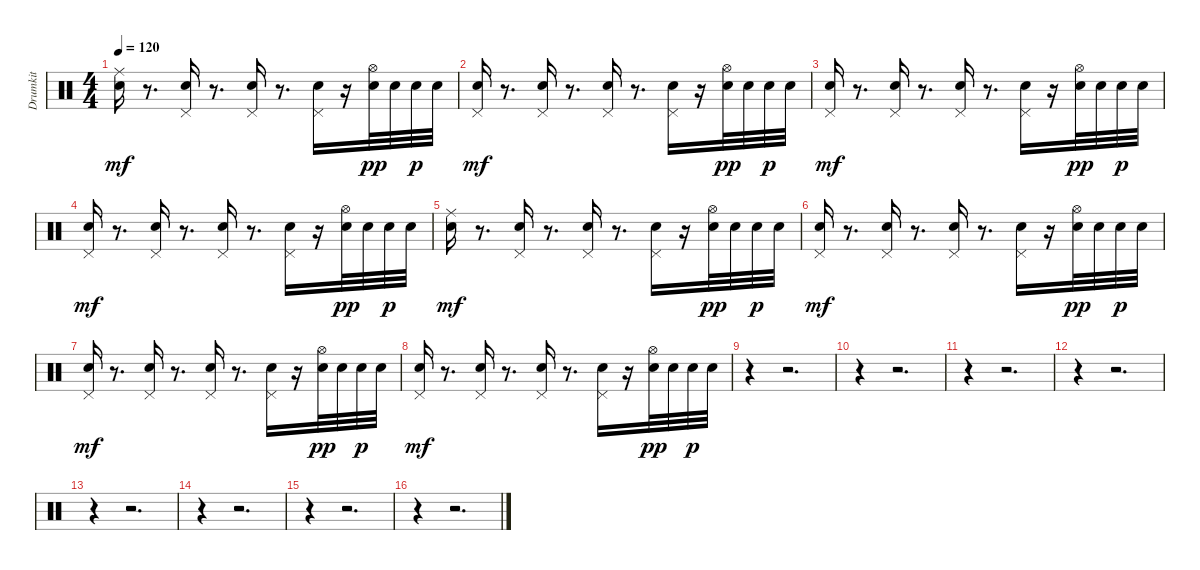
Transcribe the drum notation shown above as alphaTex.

\track ("Drumkit" "Drumkit") {instrument percussion}
\staff {score}
\articulation defaults
\ts (4 4)
\tempo 120
\clef neutral
\ks c
("Snare (hit) 2" "Ride (middle)").16{dy mf} r.8{d} ("Snare (hit) 2" "Pedal Hi-Hat (hit)").16 r.8{d} ("Snare (hit) 2" "Pedal Hi-Hat (hit)").16 r.8{d} ("Snare (hit) 2" "Pedal Hi-Hat (hit)").16 r.16 ("Snare (hit) 2" "Hi-Hat (open)").32{dy pp} "Snare (hit) 2".32 "Snare (hit) 2".32{dy p} "Snare (hit) 2".32 |
("Snare (hit) 2" "Pedal Hi-Hat (hit)").16{dy mf} r.8{d} ("Snare (hit) 2" "Pedal Hi-Hat (hit)").16 r.8{d} ("Snare (hit) 2" "Pedal Hi-Hat (hit)").16 r.8{d} ("Snare (hit) 2" "Pedal Hi-Hat (hit)").16 r.16 ("Snare (hit) 2" "Hi-Hat (open)").32{dy pp} "Snare (hit) 2".32 "Snare (hit) 2".32{dy p} "Snare (hit) 2".32 |
("Snare (hit) 2" "Pedal Hi-Hat (hit)").16{dy mf} r.8{d} ("Snare (hit) 2" "Pedal Hi-Hat (hit)").16 r.8{d} ("Snare (hit) 2" "Pedal Hi-Hat (hit)").16 r.8{d} ("Snare (hit) 2" "Pedal Hi-Hat (hit)").16 r.16 ("Snare (hit) 2" "Hi-Hat (open)").32{dy pp} "Snare (hit) 2".32 "Snare (hit) 2".32{dy p} "Snare (hit) 2".32 |
("Snare (hit) 2" "Pedal Hi-Hat (hit)").16{dy mf} r.8{d} ("Snare (hit) 2" "Pedal Hi-Hat (hit)").16 r.8{d} ("Snare (hit) 2" "Pedal Hi-Hat (hit)").16 r.8{d} ("Snare (hit) 2" "Pedal Hi-Hat (hit)").16 r.16 ("Snare (hit) 2" "Hi-Hat (open)").32{dy pp} "Snare (hit) 2".32 "Snare (hit) 2".32{dy p} "Snare (hit) 2".32 |
("Snare (hit) 2" "Ride (middle)").16{dy mf} r.8{d} ("Snare (hit) 2" "Pedal Hi-Hat (hit)").16 r.8{d} ("Snare (hit) 2" "Pedal Hi-Hat (hit)").16 r.8{d} ("Snare (hit) 2" "Pedal Hi-Hat (hit)").16 r.16 ("Snare (hit) 2" "Hi-Hat (open)").32{dy pp} "Snare (hit) 2".32 "Snare (hit) 2".32{dy p} "Snare (hit) 2".32 |
("Snare (hit) 2" "Pedal Hi-Hat (hit)").16{dy mf} r.8{d} ("Snare (hit) 2" "Pedal Hi-Hat (hit)").16 r.8{d} ("Snare (hit) 2" "Pedal Hi-Hat (hit)").16 r.8{d} ("Snare (hit) 2" "Pedal Hi-Hat (hit)").16 r.16 ("Snare (hit) 2" "Hi-Hat (open)").32{dy pp} "Snare (hit) 2".32 "Snare (hit) 2".32{dy p} "Snare (hit) 2".32 |
("Snare (hit) 2" "Pedal Hi-Hat (hit)").16{dy mf} r.8{d} ("Snare (hit) 2" "Pedal Hi-Hat (hit)").16 r.8{d} ("Snare (hit) 2" "Pedal Hi-Hat (hit)").16 r.8{d} ("Snare (hit) 2" "Pedal Hi-Hat (hit)").16 r.16 ("Snare (hit) 2" "Hi-Hat (open)").32{dy pp} "Snare (hit) 2".32 "Snare (hit) 2".32{dy p} "Snare (hit) 2".32 |
("Snare (hit) 2" "Pedal Hi-Hat (hit)").16{dy mf} r.8{d} ("Snare (hit) 2" "Pedal Hi-Hat (hit)").16 r.8{d} ("Snare (hit) 2" "Pedal Hi-Hat (hit)").16 r.8{d} ("Snare (hit) 2" "Pedal Hi-Hat (hit)").16 r.16 ("Snare (hit) 2" "Hi-Hat (open)").32{dy pp} "Snare (hit) 2".32 "Snare (hit) 2".32{dy p} "Snare (hit) 2".32 |
r.4 r.2{d} |
r.4 r.2{d} |
r.4 r.2{d} |
r.4 r.2{d} |
r.4 r.2{d} |
r.4 r.2{d} |
r.4 r.2{d} |
r.4 r.2{d}
